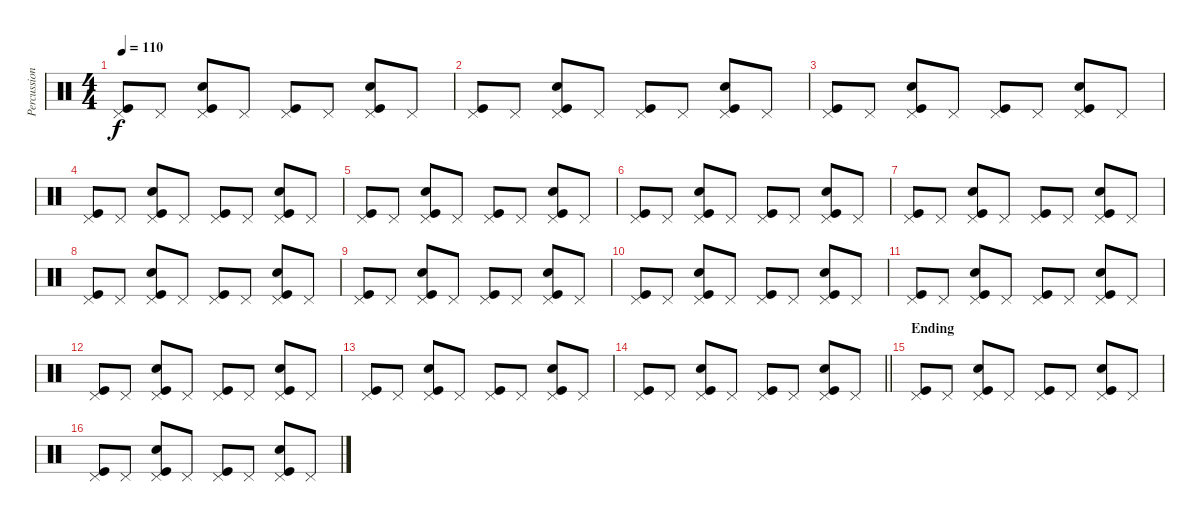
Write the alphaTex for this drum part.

\track ("Percussion" "Percussion") {instrument percussion}
\staff {score}
\articulation defaults
\ts (4 4)
\tempo 110
\clef neutral
\ks c
("Pedal Hi-Hat (hit)" "Kick (hit)").8{dy f} "Pedal Hi-Hat (hit)".8 ("Pedal Hi-Hat (hit)" "Snare (hit) 2" "Kick (hit)").8 "Pedal Hi-Hat (hit)".8 ("Pedal Hi-Hat (hit)" "Kick (hit)").8 "Pedal Hi-Hat (hit)".8 ("Pedal Hi-Hat (hit)" "Snare (hit) 2" "Kick (hit)").8 "Pedal Hi-Hat (hit)".8 |
("Pedal Hi-Hat (hit)" "Kick (hit)").8 "Pedal Hi-Hat (hit)".8 ("Pedal Hi-Hat (hit)" "Snare (hit) 2" "Kick (hit)").8 "Pedal Hi-Hat (hit)".8 ("Pedal Hi-Hat (hit)" "Kick (hit)").8 "Pedal Hi-Hat (hit)".8 ("Pedal Hi-Hat (hit)" "Snare (hit) 2" "Kick (hit)").8 "Pedal Hi-Hat (hit)".8 |
("Pedal Hi-Hat (hit)" "Kick (hit)").8 "Pedal Hi-Hat (hit)".8 ("Pedal Hi-Hat (hit)" "Snare (hit) 2" "Kick (hit)").8 "Pedal Hi-Hat (hit)".8 ("Pedal Hi-Hat (hit)" "Kick (hit)").8 "Pedal Hi-Hat (hit)".8 ("Pedal Hi-Hat (hit)" "Snare (hit) 2" "Kick (hit)").8 "Pedal Hi-Hat (hit)".8 |
("Pedal Hi-Hat (hit)" "Kick (hit)").8 "Pedal Hi-Hat (hit)".8 ("Pedal Hi-Hat (hit)" "Snare (hit) 2" "Kick (hit)").8 "Pedal Hi-Hat (hit)".8 ("Pedal Hi-Hat (hit)" "Kick (hit)").8 "Pedal Hi-Hat (hit)".8 ("Pedal Hi-Hat (hit)" "Snare (hit) 2" "Kick (hit)").8 "Pedal Hi-Hat (hit)".8 |
("Pedal Hi-Hat (hit)" "Kick (hit)").8 "Pedal Hi-Hat (hit)".8 ("Pedal Hi-Hat (hit)" "Snare (hit) 2" "Kick (hit)").8 "Pedal Hi-Hat (hit)".8 ("Pedal Hi-Hat (hit)" "Kick (hit)").8 "Pedal Hi-Hat (hit)".8 ("Pedal Hi-Hat (hit)" "Snare (hit) 2" "Kick (hit)").8 "Pedal Hi-Hat (hit)".8 |
("Pedal Hi-Hat (hit)" "Kick (hit)").8 "Pedal Hi-Hat (hit)".8 ("Pedal Hi-Hat (hit)" "Snare (hit) 2" "Kick (hit)").8 "Pedal Hi-Hat (hit)".8 ("Pedal Hi-Hat (hit)" "Kick (hit)").8 "Pedal Hi-Hat (hit)".8 ("Pedal Hi-Hat (hit)" "Snare (hit) 2" "Kick (hit)").8 "Pedal Hi-Hat (hit)".8 |
("Pedal Hi-Hat (hit)" "Kick (hit)").8 "Pedal Hi-Hat (hit)".8 ("Pedal Hi-Hat (hit)" "Snare (hit) 2" "Kick (hit)").8 "Pedal Hi-Hat (hit)".8 ("Pedal Hi-Hat (hit)" "Kick (hit)").8 "Pedal Hi-Hat (hit)".8 ("Pedal Hi-Hat (hit)" "Snare (hit) 2" "Kick (hit)").8 "Pedal Hi-Hat (hit)".8 |
("Pedal Hi-Hat (hit)" "Kick (hit)").8 "Pedal Hi-Hat (hit)".8 ("Pedal Hi-Hat (hit)" "Snare (hit) 2" "Kick (hit)").8 "Pedal Hi-Hat (hit)".8 ("Pedal Hi-Hat (hit)" "Kick (hit)").8 "Pedal Hi-Hat (hit)".8 ("Pedal Hi-Hat (hit)" "Snare (hit) 2" "Kick (hit)").8 "Pedal Hi-Hat (hit)".8 |
("Pedal Hi-Hat (hit)" "Kick (hit)").8 "Pedal Hi-Hat (hit)".8 ("Pedal Hi-Hat (hit)" "Snare (hit) 2" "Kick (hit)").8 "Pedal Hi-Hat (hit)".8 ("Pedal Hi-Hat (hit)" "Kick (hit)").8 "Pedal Hi-Hat (hit)".8 ("Pedal Hi-Hat (hit)" "Snare (hit) 2" "Kick (hit)").8 "Pedal Hi-Hat (hit)".8 |
("Pedal Hi-Hat (hit)" "Kick (hit)").8 "Pedal Hi-Hat (hit)".8 ("Pedal Hi-Hat (hit)" "Snare (hit) 2" "Kick (hit)").8 "Pedal Hi-Hat (hit)".8 ("Pedal Hi-Hat (hit)" "Kick (hit)").8 "Pedal Hi-Hat (hit)".8 ("Pedal Hi-Hat (hit)" "Snare (hit) 2" "Kick (hit)").8 "Pedal Hi-Hat (hit)".8 |
("Pedal Hi-Hat (hit)" "Kick (hit)").8 "Pedal Hi-Hat (hit)".8 ("Pedal Hi-Hat (hit)" "Snare (hit) 2" "Kick (hit)").8 "Pedal Hi-Hat (hit)".8 ("Pedal Hi-Hat (hit)" "Kick (hit)").8 "Pedal Hi-Hat (hit)".8 ("Pedal Hi-Hat (hit)" "Snare (hit) 2" "Kick (hit)").8 "Pedal Hi-Hat (hit)".8 |
("Pedal Hi-Hat (hit)" "Kick (hit)").8 "Pedal Hi-Hat (hit)".8 ("Pedal Hi-Hat (hit)" "Snare (hit) 2" "Kick (hit)").8 "Pedal Hi-Hat (hit)".8 ("Pedal Hi-Hat (hit)" "Kick (hit)").8 "Pedal Hi-Hat (hit)".8 ("Pedal Hi-Hat (hit)" "Snare (hit) 2" "Kick (hit)").8 "Pedal Hi-Hat (hit)".8 |
("Pedal Hi-Hat (hit)" "Kick (hit)").8 "Pedal Hi-Hat (hit)".8 ("Pedal Hi-Hat (hit)" "Snare (hit) 2" "Kick (hit)").8 "Pedal Hi-Hat (hit)".8 ("Pedal Hi-Hat (hit)" "Kick (hit)").8 "Pedal Hi-Hat (hit)".8 ("Pedal Hi-Hat (hit)" "Snare (hit) 2" "Kick (hit)").8 "Pedal Hi-Hat (hit)".8 |
\barLineRight lightlight
("Pedal Hi-Hat (hit)" "Kick (hit)").8 "Pedal Hi-Hat (hit)".8 ("Pedal Hi-Hat (hit)" "Snare (hit) 2" "Kick (hit)").8 "Pedal Hi-Hat (hit)".8 ("Pedal Hi-Hat (hit)" "Kick (hit)").8 "Pedal Hi-Hat (hit)".8 ("Pedal Hi-Hat (hit)" "Snare (hit) 2" "Kick (hit)").8 "Pedal Hi-Hat (hit)".8 |
\section ("" "Ending")
("Pedal Hi-Hat (hit)" "Kick (hit)").8 "Pedal Hi-Hat (hit)".8 ("Pedal Hi-Hat (hit)" "Snare (hit) 2" "Kick (hit)").8 "Pedal Hi-Hat (hit)".8 ("Pedal Hi-Hat (hit)" "Kick (hit)").8 "Pedal Hi-Hat (hit)".8 ("Pedal Hi-Hat (hit)" "Snare (hit) 2" "Kick (hit)").8 "Pedal Hi-Hat (hit)".8 |
("Pedal Hi-Hat (hit)" "Kick (hit)").8 "Pedal Hi-Hat (hit)".8 ("Pedal Hi-Hat (hit)" "Snare (hit) 2" "Kick (hit)").8 "Pedal Hi-Hat (hit)".8 ("Pedal Hi-Hat (hit)" "Kick (hit)").8 "Pedal Hi-Hat (hit)".8 ("Pedal Hi-Hat (hit)" "Snare (hit) 2" "Kick (hit)").8 "Pedal Hi-Hat (hit)".8
